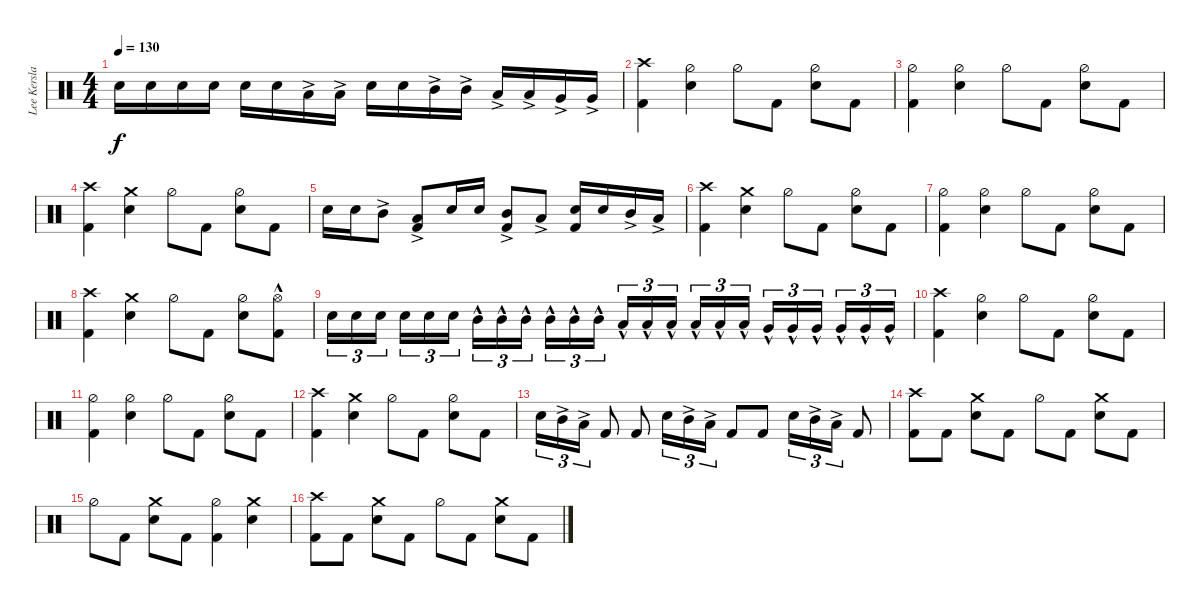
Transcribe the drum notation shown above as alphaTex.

\track ("Lee Kerslake" "Lee Kersla") {instrument percussion}
\staff {score}
\articulation defaults
\ts (4 4)
\tempo 130
\clef neutral
\ks c "Snare (hit) 2".16{dy f} "Snare (hit) 2".16 "Snare (hit) 2".16 "Snare (hit) 2".16 "Snare (hit) 2".16 "Snare (hit) 2".16 "Low Tom (hit)"{ac}.16 "Low Tom (hit)"{ac}.16 "Snare (hit) 2".16 "Snare (hit) 2".16 "Mid Tom (hit)"{ac}.16 "Mid Tom (hit)"{ac}.16 "Low Tom (hit)"{ac}.16 "Low Tom (hit)"{ac}.16 "Very Low Tom (hit)"{ac}.16 "Very Low Tom (hit)"{ac}.16
|
("Kick (hit) 2" "Crash high (hit)").4 ("Snare (hit) 2" "Hi-Hat (half)").4 "Hi-Hat (half)".8 "Kick (hit) 2".8 ("Snare (hit) 2" "Hi-Hat (half)").8 "Kick (hit) 2".8 |
("Kick (hit) 2" "Hi-Hat (half)").4 ("Snare (hit) 2" "Hi-Hat (half)").4 "Hi-Hat (half)".8 "Kick (hit) 2".8 ("Snare (hit) 2" "Hi-Hat (half)").8 "Kick (hit) 2".8 |
("Kick (hit) 2" "Crash high (hit)").4 ("Snare (hit) 2" "Crash medium (hit)").4 "Hi-Hat (half)".8 "Kick (hit) 2".8 ("Snare (hit) 2" "Hi-Hat (half)").8 "Kick (hit) 2".8 |
"Snare (hit) 2".16 "Snare (hit) 2".16 "Mid Tom (hit)"{ac}.8 ("Kick (hit) 2" "Low Tom (hit)"{ac}).8 "Snare (hit) 2".16 "Snare (hit) 2".16 ("Kick (hit) 2" "Mid Tom (hit)"{ac}).8 "Low Tom (hit)"{ac}.8 ("Kick (hit) 2" "Snare (hit) 2").16 "Snare (hit) 2".16 "Mid Tom (hit)"{ac}.16 "Low Tom (hit)"{ac}.16 |
("Kick (hit) 2" "Crash high (hit)").4 ("Snare (hit) 2" "Crash medium (hit)").4 "Hi-Hat (half)".8 "Kick (hit) 2".8 ("Snare (hit) 2" "Hi-Hat (half)").8 "Kick (hit) 2".8 |
("Kick (hit) 2" "Hi-Hat (half)").4 ("Snare (hit) 2" "Hi-Hat (half)").4 "Hi-Hat (half)".8 "Kick (hit) 2".8 ("Snare (hit) 2" "Hi-Hat (half)").8 "Kick (hit) 2".8 |
("Kick (hit) 2" "Crash high (hit)").4 ("Snare (hit) 2" "Crash medium (hit)").4 "Hi-Hat (half)".8 "Kick (hit) 2".8 ("Snare (hit) 2" "Hi-Hat (half)").8 ("Kick (hit) 2" "Hi-Hat (open)"{hac}).8 |
"Snare (hit) 2".16{tu (3 2)} "Snare (hit) 2".16{tu (3 2)} "Snare (hit) 2".16{tu (3 2)} "Snare (hit) 2".16{tu (3 2)} "Snare (hit) 2".16{tu (3 2)} "Snare (hit) 2".16{tu (3 2)} "Mid Tom (hit)"{hac}.16{tu (3 2)} "Mid Tom (hit)"{hac}.16{tu (3 2)} "Mid Tom (hit)"{hac}.16{tu (3 2)} "Mid Tom (hit)"{hac}.16{tu (3 2)} "Mid Tom (hit)"{hac}.16{tu (3 2)} "Mid Tom (hit)"{hac}.16{tu (3 2)} "Low Tom (hit)"{hac}.16{tu (3 2)} "Low Tom (hit)"{hac}.16{tu (3 2)} "Low Tom (hit)"{hac}.16{tu (3 2)} "Low Tom (hit)"{hac}.16{tu (3 2)} "Low Tom (hit)"{hac}.16{tu (3 2)} "Low Tom (hit)"{hac}.16{tu (3 2)} "Very Low Tom (hit)"{hac}.16{tu (3 2)} "Very Low Tom (hit)"{hac}.16{tu (3 2)} "Very Low Tom (hit)"{hac}.16{tu (3 2)} "Very Low Tom (hit)"{hac}.16{tu (3 2)} "Very Low Tom (hit)"{hac}.16{tu (3 2)} "Very Low Tom (hit)"{hac}.16{tu (3 2)} |
("Kick (hit) 2" "Crash high (hit)").4 ("Snare (hit) 2" "Hi-Hat (half)").4 "Hi-Hat (half)".8 "Kick (hit) 2".8 ("Snare (hit) 2" "Hi-Hat (half)").8 "Kick (hit) 2".8 |
("Kick (hit) 2" "Hi-Hat (half)").4 ("Snare (hit) 2" "Hi-Hat (half)").4 "Hi-Hat (half)".8 "Kick (hit) 2".8 ("Snare (hit) 2" "Hi-Hat (half)").8 "Kick (hit) 2".8 |
("Kick (hit) 2" "Crash high (hit)").4 ("Snare (hit) 2" "Crash medium (hit)").4 "Hi-Hat (half)".8 "Kick (hit) 2".8 ("Snare (hit) 2" "Hi-Hat (half)").8 "Kick (hit) 2".8 |
"Snare (hit) 2".16{tu (3 2)} "Mid Tom (hit)"{ac}.16{tu (3 2)} "Low Tom (hit)"{ac}.16{tu (3 2)} "Kick (hit) 2".8 "Kick (hit) 2".8 "Snare (hit) 2".16{tu (3 2)} "Mid Tom (hit)"{ac}.16{tu (3 2)} "Low Tom (hit)"{ac}.16{tu (3 2)} "Kick (hit) 2".8 "Kick (hit) 2".8 "Snare (hit) 2".16{tu (3 2)} "Mid Tom (hit)"{ac}.16{tu (3 2)} "Low Tom (hit)"{ac}.16{tu (3 2)} "Kick (hit) 2".8 |
("Kick (hit) 2" "Crash high (hit)").8 "Kick (hit) 2".8 ("Snare (hit) 2" "Crash medium (hit)").8 "Kick (hit) 2".8 "Hi-Hat (half)".8 "Kick (hit) 2".8 ("Snare (hit) 2" "Crash medium (hit)").8 "Kick (hit) 2".8 |
"Hi-Hat (half)".8 "Kick (hit) 2".8 ("Snare (hit) 2" "Crash medium (hit)").8 "Kick (hit) 2".8 ("Kick (hit) 2" "Hi-Hat (half)").4 ("Snare (hit) 2" "Crash medium (hit)").4 |
("Kick (hit) 2" "Crash high (hit)").8 "Kick (hit) 2".8 ("Snare (hit) 2" "Crash medium (hit)").8 "Kick (hit) 2".8 "Hi-Hat (half)".8 "Kick (hit) 2".8 ("Snare (hit) 2" "Crash medium (hit)").8 "Kick (hit) 2".8
